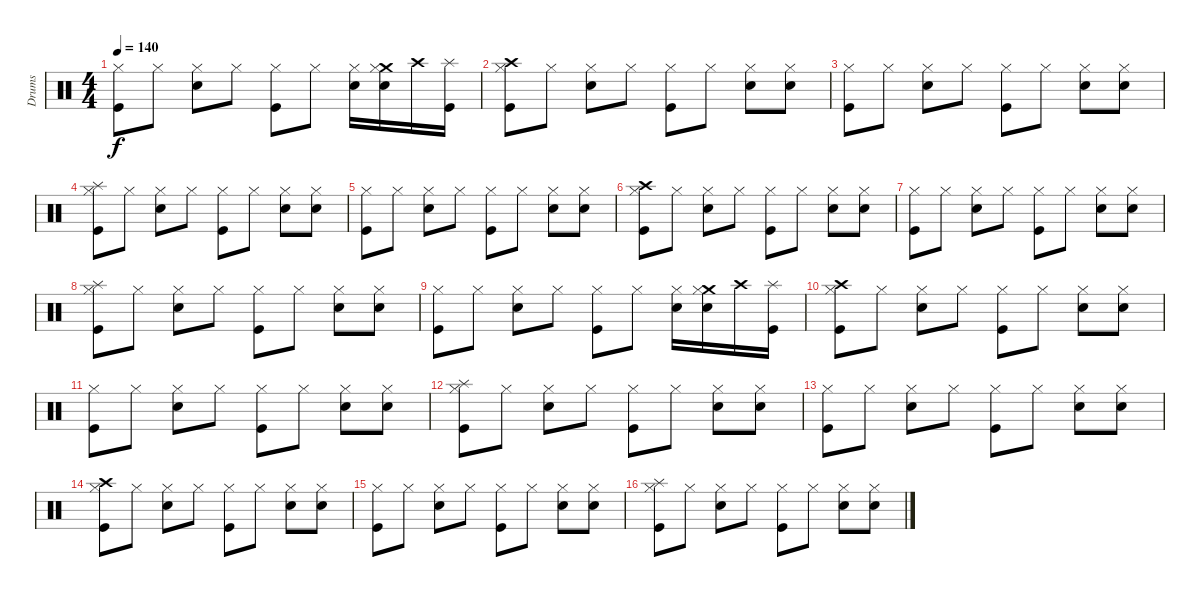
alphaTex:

\track ("Drums" "Drums") {instrument percussion}
\staff {score}
\articulation defaults
\ts (4 4)
\tempo 140
\clef neutral
\ks c
("Hi-Hat (closed)" "Kick (hit)").8{dy f} "Hi-Hat (closed)".8 ("Hi-Hat (closed)" "Electric Snare (hit)").8 "Hi-Hat (closed)".8 ("Hi-Hat (closed)" "Kick (hit)").8 "Hi-Hat (closed)".8 ("Hi-Hat (closed)" "Electric Snare (hit)").16 ("Crash medium (hit)" "Hi-Hat (closed)" "Electric Snare (hit)").16 "Crash high (hit)".16 ("Splash (hit)" "Kick (hit)").16 |
("Crash high (hit)" "Hi-Hat (closed)" "Kick (hit)").8 "Hi-Hat (closed)".8 ("Hi-Hat (closed)" "Electric Snare (hit)").8 "Hi-Hat (closed)".8 ("Hi-Hat (closed)" "Kick (hit)").8 "Hi-Hat (closed)".8 ("Hi-Hat (closed)" "Electric Snare (hit)").8 ("Hi-Hat (closed)" "Electric Snare (hit)").8 |
("Hi-Hat (closed)" "Kick (hit)").8 "Hi-Hat (closed)".8 ("Hi-Hat (closed)" "Electric Snare (hit)").8 "Hi-Hat (closed)".8 ("Hi-Hat (closed)" "Kick (hit)").8 "Hi-Hat (closed)".8 ("Hi-Hat (closed)" "Electric Snare (hit)").8 ("Hi-Hat (closed)" "Electric Snare (hit)").8 |
("Splash (hit)" "Hi-Hat (closed)" "Kick (hit)").8 "Hi-Hat (closed)".8 ("Hi-Hat (closed)" "Electric Snare (hit)").8 "Hi-Hat (closed)".8 ("Hi-Hat (closed)" "Kick (hit)").8 "Hi-Hat (closed)".8 ("Hi-Hat (closed)" "Electric Snare (hit)").8 ("Hi-Hat (closed)" "Electric Snare (hit)").8 |
("Hi-Hat (closed)" "Kick (hit)").8 "Hi-Hat (closed)".8 ("Hi-Hat (closed)" "Electric Snare (hit)").8 "Hi-Hat (closed)".8 ("Hi-Hat (closed)" "Kick (hit)").8 "Hi-Hat (closed)".8 ("Hi-Hat (closed)" "Electric Snare (hit)").8 ("Hi-Hat (closed)" "Electric Snare (hit)").8 |
("Crash high (hit)" "Hi-Hat (closed)" "Kick (hit)").8 "Hi-Hat (closed)".8 ("Hi-Hat (closed)" "Electric Snare (hit)").8 "Hi-Hat (closed)".8 ("Hi-Hat (closed)" "Kick (hit)").8 "Hi-Hat (closed)".8 ("Hi-Hat (closed)" "Electric Snare (hit)").8 ("Hi-Hat (closed)" "Electric Snare (hit)").8 |
("Hi-Hat (closed)" "Kick (hit)").8 "Hi-Hat (closed)".8 ("Hi-Hat (closed)" "Electric Snare (hit)").8 "Hi-Hat (closed)".8 ("Hi-Hat (closed)" "Kick (hit)").8 "Hi-Hat (closed)".8 ("Hi-Hat (closed)" "Electric Snare (hit)").8 ("Hi-Hat (closed)" "Electric Snare (hit)").8 |
("Splash (hit)" "Hi-Hat (closed)" "Kick (hit)").8 "Hi-Hat (closed)".8 ("Hi-Hat (closed)" "Electric Snare (hit)").8 "Hi-Hat (closed)".8 ("Hi-Hat (closed)" "Kick (hit)").8 "Hi-Hat (closed)".8 ("Hi-Hat (closed)" "Electric Snare (hit)").8 ("Hi-Hat (closed)" "Electric Snare (hit)").8 |
("Hi-Hat (closed)" "Kick (hit)").8 "Hi-Hat (closed)".8 ("Hi-Hat (closed)" "Electric Snare (hit)").8 "Hi-Hat (closed)".8 ("Hi-Hat (closed)" "Kick (hit)").8 "Hi-Hat (closed)".8 ("Hi-Hat (closed)" "Electric Snare (hit)").16 ("Crash medium (hit)" "Hi-Hat (closed)" "Electric Snare (hit)").16 "Crash high (hit)".16 ("Splash (hit)" "Kick (hit)").16 |
("Crash high (hit)" "Hi-Hat (closed)" "Kick (hit)").8 "Hi-Hat (closed)".8 ("Hi-Hat (closed)" "Electric Snare (hit)").8 "Hi-Hat (closed)".8 ("Hi-Hat (closed)" "Kick (hit)").8 "Hi-Hat (closed)".8 ("Hi-Hat (closed)" "Electric Snare (hit)").8 ("Hi-Hat (closed)" "Electric Snare (hit)").8 |
("Hi-Hat (closed)" "Kick (hit)").8 "Hi-Hat (closed)".8 ("Hi-Hat (closed)" "Electric Snare (hit)").8 "Hi-Hat (closed)".8 ("Hi-Hat (closed)" "Kick (hit)").8 "Hi-Hat (closed)".8 ("Hi-Hat (closed)" "Electric Snare (hit)").8 ("Hi-Hat (closed)" "Electric Snare (hit)").8 |
("Splash (hit)" "Hi-Hat (closed)" "Kick (hit)").8 "Hi-Hat (closed)".8 ("Hi-Hat (closed)" "Electric Snare (hit)").8 "Hi-Hat (closed)".8 ("Hi-Hat (closed)" "Kick (hit)").8 "Hi-Hat (closed)".8 ("Hi-Hat (closed)" "Electric Snare (hit)").8 ("Hi-Hat (closed)" "Electric Snare (hit)").8 |
("Hi-Hat (closed)" "Kick (hit)").8 "Hi-Hat (closed)".8 ("Hi-Hat (closed)" "Electric Snare (hit)").8 "Hi-Hat (closed)".8 ("Hi-Hat (closed)" "Kick (hit)").8 "Hi-Hat (closed)".8 ("Hi-Hat (closed)" "Electric Snare (hit)").8 ("Hi-Hat (closed)" "Electric Snare (hit)").8 |
("Crash high (hit)" "Hi-Hat (closed)" "Kick (hit)").8 "Hi-Hat (closed)".8 ("Hi-Hat (closed)" "Electric Snare (hit)").8 "Hi-Hat (closed)".8 ("Hi-Hat (closed)" "Kick (hit)").8 "Hi-Hat (closed)".8 ("Hi-Hat (closed)" "Electric Snare (hit)").8 ("Hi-Hat (closed)" "Electric Snare (hit)").8 |
("Hi-Hat (closed)" "Kick (hit)").8 "Hi-Hat (closed)".8 ("Hi-Hat (closed)" "Electric Snare (hit)").8 "Hi-Hat (closed)".8 ("Hi-Hat (closed)" "Kick (hit)").8 "Hi-Hat (closed)".8 ("Hi-Hat (closed)" "Electric Snare (hit)").8 ("Hi-Hat (closed)" "Electric Snare (hit)").8 |
("Splash (hit)" "Hi-Hat (closed)" "Kick (hit)").8 "Hi-Hat (closed)".8 ("Hi-Hat (closed)" "Electric Snare (hit)").8 "Hi-Hat (closed)".8 ("Hi-Hat (closed)" "Kick (hit)").8 "Hi-Hat (closed)".8 ("Hi-Hat (closed)" "Electric Snare (hit)").8 ("Hi-Hat (closed)" "Electric Snare (hit)").8
